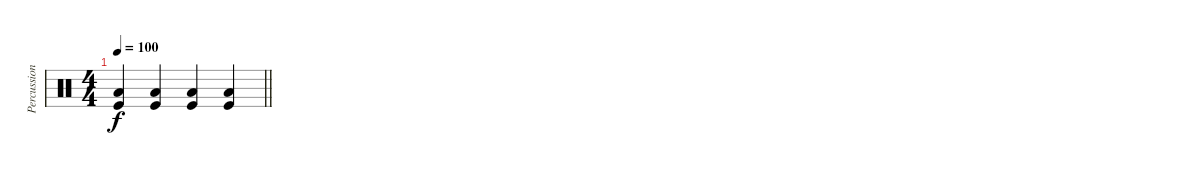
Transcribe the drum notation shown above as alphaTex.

\track ("Percussion" "Percussion") {instrument percussion}
\staff {score}
\articulation defaults
\ts (4 4)
\tempo 100
\clef neutral
\barLineRight lightlight
\ks c
("Kick (hit)" "Low Floor Tom (hit)").4{dy f} ("Kick (hit)" "Low Floor Tom (hit)").4 ("Kick (hit)" "Low Floor Tom (hit)").4 ("Kick (hit)" "Low Floor Tom (hit)").4
